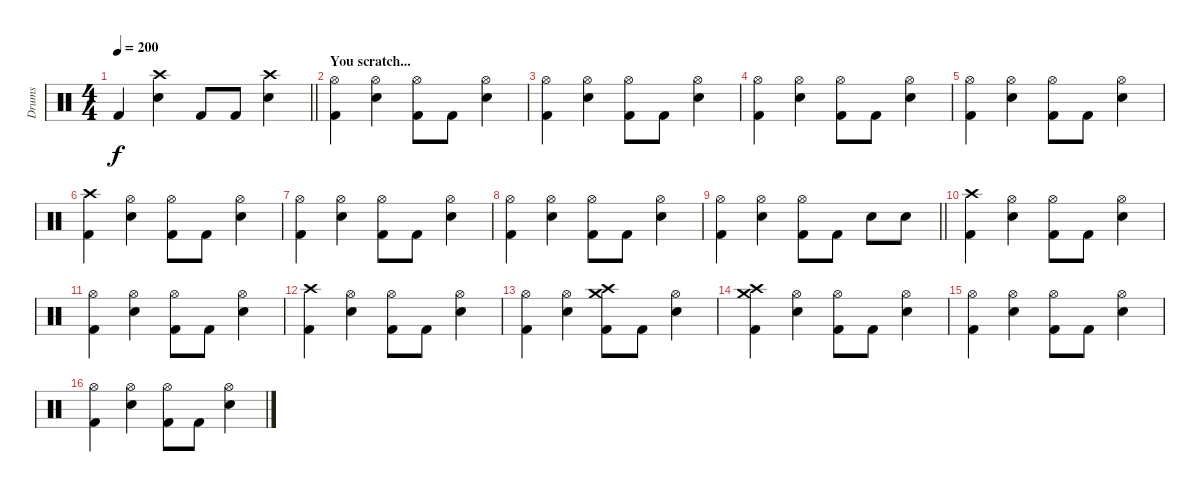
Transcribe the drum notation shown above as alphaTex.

\track ("Drums" "Drums") {instrument percussion}
\staff {score}
\articulation defaults
\ts (4 4)
\tempo 200
\clef neutral
\barLineRight lightlight
\ks c "Kick (hit) 2".4{dy f}
("Crash high (hit)" "Snare (hit) 2").4 "Kick (hit) 2".8 "Kick (hit) 2".8 ("Crash high (hit)" "Snare (hit) 2").4 |
\section ("" "You scratch...")
("Hi-Hat (open)" "Kick (hit) 2").4 ("Hi-Hat (open)" "Snare (hit) 2").4 ("Hi-Hat (open)" "Kick (hit) 2").8 "Kick (hit) 2".8 ("Hi-Hat (open)" "Snare (hit) 2").4 |
("Hi-Hat (open)" "Kick (hit) 2").4 ("Hi-Hat (open)" "Snare (hit) 2").4 ("Hi-Hat (open)" "Kick (hit) 2").8 "Kick (hit) 2".8 ("Hi-Hat (open)" "Snare (hit) 2").4 |
("Hi-Hat (open)" "Kick (hit) 2").4 ("Hi-Hat (open)" "Snare (hit) 2").4 ("Hi-Hat (open)" "Kick (hit) 2").8 "Kick (hit) 2".8 ("Hi-Hat (open)" "Snare (hit) 2").4 |
("Hi-Hat (open)" "Kick (hit) 2").4 ("Hi-Hat (open)" "Snare (hit) 2").4 ("Hi-Hat (open)" "Kick (hit) 2").8 "Kick (hit) 2".8 ("Hi-Hat (open)" "Snare (hit) 2").4 |
("Crash high (hit)" "Kick (hit) 2").4 ("Hi-Hat (open)" "Snare (hit) 2").4 ("Hi-Hat (open)" "Kick (hit) 2").8 "Kick (hit) 2".8 ("Hi-Hat (open)" "Snare (hit) 2").4 |
("Hi-Hat (open)" "Kick (hit) 2").4 ("Hi-Hat (open)" "Snare (hit) 2").4 ("Hi-Hat (open)" "Kick (hit) 2").8 "Kick (hit) 2".8 ("Hi-Hat (open)" "Snare (hit) 2").4 |
("Hi-Hat (open)" "Kick (hit) 2").4 ("Hi-Hat (open)" "Snare (hit) 2").4 ("Hi-Hat (open)" "Kick (hit) 2").8 "Kick (hit) 2".8 ("Hi-Hat (open)" "Snare (hit) 2").4 |
\barLineRight lightlight
("Hi-Hat (open)" "Kick (hit) 2").4 ("Hi-Hat (open)" "Snare (hit) 2").4 ("Hi-Hat (open)" "Kick (hit) 2").8 "Kick (hit) 2".8 "Snare (hit) 2".8 "Snare (hit) 2".8 |
("Crash high (hit)" "Kick (hit) 2").4 ("Hi-Hat (open)" "Snare (hit) 2").4 ("Hi-Hat (open)" "Kick (hit) 2").8 "Kick (hit) 2".8 ("Hi-Hat (open)" "Snare (hit) 2").4 |
("Hi-Hat (open)" "Kick (hit) 2").4 ("Hi-Hat (open)" "Snare (hit) 2").4 ("Hi-Hat (open)" "Kick (hit) 2").8 "Kick (hit) 2".8 ("Hi-Hat (open)" "Snare (hit) 2").4 |
("Crash high (hit)" "Kick (hit) 2").4 ("Hi-Hat (open)" "Snare (hit) 2").4 ("Hi-Hat (open)" "Kick (hit) 2").8 "Kick (hit) 2".8 ("Hi-Hat (open)" "Snare (hit) 2").4 |
("Hi-Hat (open)" "Kick (hit) 2").4 ("Hi-Hat (open)" "Snare (hit) 2").4 ("Crash medium (hit)" "Crash high (hit)" "Kick (hit) 2").8 "Kick (hit) 2".8 ("Hi-Hat (open)" "Snare (hit) 2").4 |
("Crash high (hit)" "Crash medium (hit)" "Kick (hit) 2").4 ("Hi-Hat (open)" "Snare (hit) 2").4 ("Hi-Hat (open)" "Kick (hit) 2").8 "Kick (hit) 2".8 ("Hi-Hat (open)" "Snare (hit) 2").4 |
("Hi-Hat (open)" "Kick (hit) 2").4 ("Hi-Hat (open)" "Snare (hit) 2").4 ("Hi-Hat (open)" "Kick (hit) 2").8 "Kick (hit) 2".8 ("Hi-Hat (open)" "Snare (hit) 2").4 |
("Hi-Hat (open)" "Kick (hit) 2").4 ("Hi-Hat (open)" "Snare (hit) 2").4 ("Hi-Hat (open)" "Kick (hit) 2").8 "Kick (hit) 2".8 ("Hi-Hat (open)" "Snare (hit) 2").4
